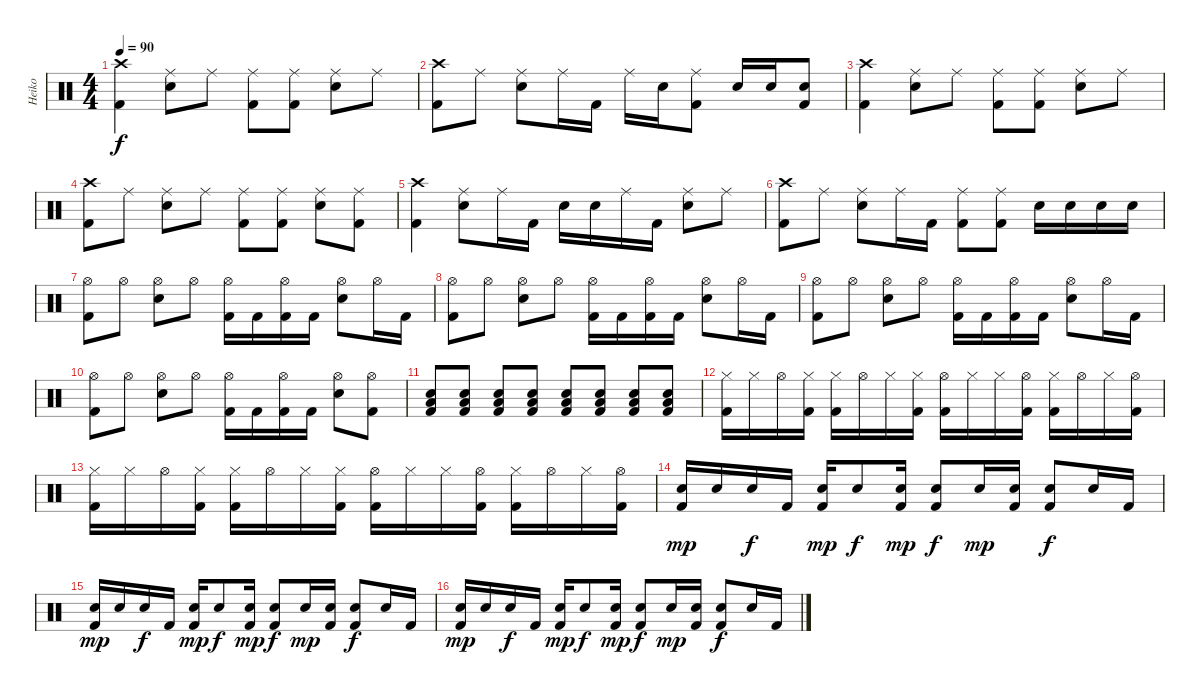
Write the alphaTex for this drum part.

\track ("Heiko" "Heiko") {instrument percussion}
\staff {score}
\articulation defaults
\ts (4 4)
\tempo 90
\clef neutral
\ks c
("Crash high (hit)" "Kick (hit) 2").4{dy f} ("Ride (middle)" "Electric Snare (hit)").8 "Ride (middle)".8 ("Ride (middle)" "Kick (hit) 2").8 ("Ride (middle)" "Kick (hit) 2").8 ("Ride (middle)" "Electric Snare (hit)").8 "Ride (middle)".8 |
("Crash high (hit)" "Kick (hit) 2").8 "Ride (middle)".8 ("Ride (middle)" "Electric Snare (hit)").8 "Ride (middle)".16 "Kick (hit) 2".16 "Ride (middle)".16 "Electric Snare (hit)".16 ("Ride (middle)" "Kick (hit) 2").8 "Electric Snare (hit)".16 "Electric Snare (hit)".16 ("Electric Snare (hit)" "Kick (hit) 2").8 |
("Crash high (hit)" "Kick (hit) 2").4 ("Ride (middle)" "Electric Snare (hit)").8 "Ride (middle)".8 ("Ride (middle)" "Kick (hit) 2").8 ("Ride (middle)" "Kick (hit) 2").8 ("Ride (middle)" "Electric Snare (hit)").8 "Ride (middle)".8 |
("Crash high (hit)" "Kick (hit) 2").8 "Ride (middle)".8 ("Ride (middle)" "Electric Snare (hit)").8 "Ride (middle)".8 ("Ride (middle)" "Kick (hit) 2").8 ("Ride (middle)" "Kick (hit) 2").8 ("Ride (middle)" "Electric Snare (hit)").8 ("Ride (middle)" "Kick (hit) 2").8 |
("Crash high (hit)" "Kick (hit) 2").4 ("Ride (middle)" "Electric Snare (hit)").8 "Ride (middle)".16 "Kick (hit) 2".16 "Electric Snare (hit)".16 "Electric Snare (hit)".16 "Ride (middle)".16 "Kick (hit) 2".16 ("Ride (middle)" "Electric Snare (hit)").8 "Ride (middle)".8 |
("Crash high (hit)" "Kick (hit) 2").8 "Ride (middle)".8 ("Ride (middle)" "Electric Snare (hit)").8 "Ride (middle)".16 "Kick (hit) 2".16 ("Ride (middle)" "Kick (hit) 2").8 ("Ride (middle)" "Kick (hit) 2").8 "Electric Snare (hit)".16 "Electric Snare (hit)".16 "Electric Snare (hit)".16 "Electric Snare (hit)".16 |
("Hi-Hat (open)" "Kick (hit) 2").8 "Hi-Hat (open)".8 ("Hi-Hat (open)" "Electric Snare (hit)").8 "Hi-Hat (open)".8 ("Hi-Hat (open)" "Kick (hit) 2").16 "Kick (hit) 2".16 ("Hi-Hat (open)" "Kick (hit) 2").16 "Kick (hit) 2".16 ("Hi-Hat (open)" "Electric Snare (hit)").8 "Hi-Hat (open)".16 "Kick (hit) 2".16 |
("Hi-Hat (open)" "Kick (hit) 2").8 "Hi-Hat (open)".8 ("Hi-Hat (open)" "Electric Snare (hit)").8 "Hi-Hat (open)".8 ("Hi-Hat (open)" "Kick (hit) 2").16 "Kick (hit) 2".16 ("Hi-Hat (open)" "Kick (hit) 2").16 "Kick (hit) 2".16 ("Hi-Hat (open)" "Electric Snare (hit)").8 "Hi-Hat (open)".16 "Kick (hit) 2".16 |
("Hi-Hat (open)" "Kick (hit) 2").8 "Hi-Hat (open)".8 ("Hi-Hat (open)" "Electric Snare (hit)").8 "Hi-Hat (open)".8 ("Hi-Hat (open)" "Kick (hit) 2").16 "Kick (hit) 2".16 ("Hi-Hat (open)" "Kick (hit) 2").16 "Kick (hit) 2".16 ("Hi-Hat (open)" "Electric Snare (hit)").8 "Hi-Hat (open)".16 "Kick (hit) 2".16 |
("Hi-Hat (open)" "Kick (hit) 2").8 "Hi-Hat (open)".8 ("Hi-Hat (open)" "Electric Snare (hit)").8 "Hi-Hat (open)".8 ("Hi-Hat (open)" "Kick (hit) 2").16 "Kick (hit) 2".16 ("Hi-Hat (open)" "Kick (hit) 2").16 "Kick (hit) 2".16 ("Hi-Hat (open)" "Electric Snare (hit)").8 ("Hi-Hat (open)" "Kick (hit) 2").8 |
("Low Floor Tom (hit)" "Electric Snare (hit)" "Kick (hit) 2").8 ("Low Floor Tom (hit)" "Electric Snare (hit)" "Kick (hit) 2").8 ("Low Floor Tom (hit)" "Electric Snare (hit)" "Kick (hit) 2").8 ("Low Floor Tom (hit)" "Electric Snare (hit)" "Kick (hit) 2").8 ("Low Floor Tom (hit)" "Electric Snare (hit)" "Kick (hit) 2").8 ("Low Floor Tom (hit)" "Electric Snare (hit)" "Kick (hit) 2").8 ("Low Floor Tom (hit)" "Electric Snare (hit)" "Kick (hit) 2").8 ("Low Floor Tom (hit)" "Electric Snare (hit)" "Kick (hit) 2").8 |
("Hi-Hat (closed)" "Kick (hit) 2").16 "Hi-Hat (closed)".16 "Hi-Hat (open)".16 ("Hi-Hat (closed)" "Kick (hit) 2").16 ("Hi-Hat (closed)" "Kick (hit) 2").16 "Hi-Hat (open)".16 "Hi-Hat (closed)".16 ("Hi-Hat (closed)" "Kick (hit) 2").16 ("Hi-Hat (open)" "Kick (hit) 2").16 "Hi-Hat (closed)".16 "Hi-Hat (closed)".16 ("Hi-Hat (open)" "Kick (hit) 2").16 ("Hi-Hat (closed)" "Kick (hit) 2").16 "Hi-Hat (open)".16 "Hi-Hat (closed)".16 ("Hi-Hat (open)" "Kick (hit) 2").16 |
("Hi-Hat (closed)" "Kick (hit) 2").16 "Hi-Hat (closed)".16 "Hi-Hat (open)".16 ("Hi-Hat (closed)" "Kick (hit) 2").16 ("Hi-Hat (closed)" "Kick (hit) 2").16 "Hi-Hat (open)".16 "Hi-Hat (closed)".16 ("Hi-Hat (closed)" "Kick (hit) 2").16 ("Hi-Hat (open)" "Kick (hit) 2").16 "Hi-Hat (closed)".16 "Hi-Hat (closed)".16 ("Hi-Hat (open)" "Kick (hit) 2").16 ("Hi-Hat (closed)" "Kick (hit) 2").16 "Hi-Hat (open)".16 "Hi-Hat (closed)".16 ("Hi-Hat (open)" "Kick (hit) 2").16 |
("Electric Snare (hit)" "Kick (hit) 2").16{dy mp} "Electric Snare (hit)".16 "Electric Snare (hit)".16{dy f} "Kick (hit) 2".16 ("Electric Snare (hit)" "Kick (hit) 2").16{dy mp} "Electric Snare (hit)".8{dy f} ("Electric Snare (hit)" "Kick (hit) 2").16{dy mp} ("Electric Snare (hit)" "Kick (hit) 2").8{dy f} "Electric Snare (hit)".16{dy mp} ("Electric Snare (hit)" "Kick (hit) 2").16 ("Electric Snare (hit)" "Kick (hit) 2").8{dy f} "Electric Snare (hit)".16 "Kick (hit) 2".16 |
("Electric Snare (hit)" "Kick (hit) 2").16{dy mp} "Electric Snare (hit)".16 "Electric Snare (hit)".16{dy f} "Kick (hit) 2".16 ("Electric Snare (hit)" "Kick (hit) 2").16{dy mp} "Electric Snare (hit)".8{dy f} ("Electric Snare (hit)" "Kick (hit) 2").16{dy mp} ("Electric Snare (hit)" "Kick (hit) 2").8{dy f} "Electric Snare (hit)".16{dy mp} ("Electric Snare (hit)" "Kick (hit) 2").16 ("Electric Snare (hit)" "Kick (hit) 2").8{dy f} "Electric Snare (hit)".16 "Kick (hit) 2".16 |
("Electric Snare (hit)" "Kick (hit) 2").16{dy mp} "Electric Snare (hit)".16 "Electric Snare (hit)".16{dy f} "Kick (hit) 2".16 ("Electric Snare (hit)" "Kick (hit) 2").16{dy mp} "Electric Snare (hit)".8{dy f} ("Electric Snare (hit)" "Kick (hit) 2").16{dy mp} ("Electric Snare (hit)" "Kick (hit) 2").8{dy f} "Electric Snare (hit)".16{dy mp} ("Electric Snare (hit)" "Kick (hit) 2").16 ("Electric Snare (hit)" "Kick (hit) 2").8{dy f} "Electric Snare (hit)".16 "Kick (hit) 2".16
